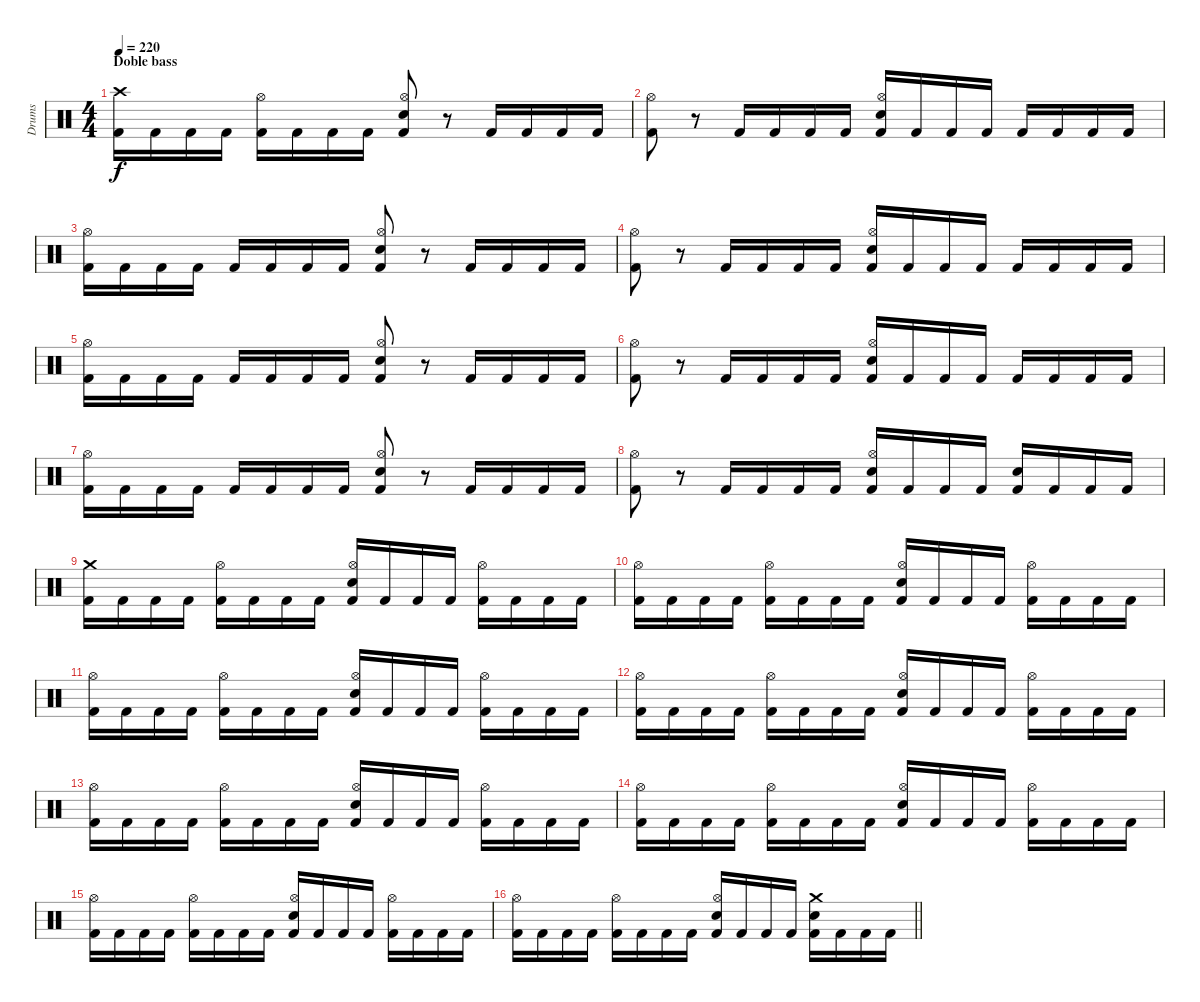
\track ("Drums" "Drums") {instrument percussion}
\staff {score}
\articulation defaults
\ts (4 4)
\section ("" "Doble bass")
\tempo 220
\clef neutral
\ks c
("Crash high (hit)" "Kick (hit) 2").16{dy f} "Kick (hit) 2".16 "Kick (hit) 2".16 "Kick (hit) 2".16 ("Hi-Hat (open)" "Kick (hit) 2").16 "Kick (hit) 2".16 "Kick (hit) 2".16 "Kick (hit) 2".16 ("Hi-Hat (open)" "Electric Snare (hit)" "Kick (hit) 2").8 r.8 "Kick (hit) 2".16 "Kick (hit) 2".16 "Kick (hit) 2".16 "Kick (hit) 2".16 |
("Hi-Hat (open)" "Kick (hit) 2").8 r.8 "Kick (hit) 2".16 "Kick (hit) 2".16 "Kick (hit) 2".16 "Kick (hit) 2".16 ("Hi-Hat (open)" "Electric Snare (hit)" "Kick (hit) 2").16 "Kick (hit) 2".16 "Kick (hit) 2".16 "Kick (hit) 2".16 "Kick (hit) 2".16 "Kick (hit) 2".16 "Kick (hit) 2".16 "Kick (hit) 2".16 |
("Hi-Hat (open)" "Kick (hit) 2").16 "Kick (hit) 2".16 "Kick (hit) 2".16 "Kick (hit) 2".16 "Kick (hit) 2".16 "Kick (hit) 2".16 "Kick (hit) 2".16 "Kick (hit) 2".16 ("Hi-Hat (open)" "Electric Snare (hit)" "Kick (hit) 2").8 r.8 "Kick (hit) 2".16 "Kick (hit) 2".16 "Kick (hit) 2".16 "Kick (hit) 2".16 |
("Hi-Hat (open)" "Kick (hit) 2").8 r.8 "Kick (hit) 2".16 "Kick (hit) 2".16 "Kick (hit) 2".16 "Kick (hit) 2".16 ("Hi-Hat (open)" "Electric Snare (hit)" "Kick (hit) 2").16 "Kick (hit) 2".16 "Kick (hit) 2".16 "Kick (hit) 2".16 "Kick (hit) 2".16 "Kick (hit) 2".16 "Kick (hit) 2".16 "Kick (hit) 2".16 |
("Hi-Hat (open)" "Kick (hit) 2").16 "Kick (hit) 2".16 "Kick (hit) 2".16 "Kick (hit) 2".16 "Kick (hit) 2".16 "Kick (hit) 2".16 "Kick (hit) 2".16 "Kick (hit) 2".16 ("Hi-Hat (open)" "Electric Snare (hit)" "Kick (hit) 2").8 r.8 "Kick (hit) 2".16 "Kick (hit) 2".16 "Kick (hit) 2".16 "Kick (hit) 2".16 |
("Hi-Hat (open)" "Kick (hit) 2").8 r.8 "Kick (hit) 2".16 "Kick (hit) 2".16 "Kick (hit) 2".16 "Kick (hit) 2".16 ("Hi-Hat (open)" "Electric Snare (hit)" "Kick (hit) 2").16 "Kick (hit) 2".16 "Kick (hit) 2".16 "Kick (hit) 2".16 "Kick (hit) 2".16 "Kick (hit) 2".16 "Kick (hit) 2".16 "Kick (hit) 2".16 |
("Hi-Hat (open)" "Kick (hit) 2").16 "Kick (hit) 2".16 "Kick (hit) 2".16 "Kick (hit) 2".16 "Kick (hit) 2".16 "Kick (hit) 2".16 "Kick (hit) 2".16 "Kick (hit) 2".16 ("Hi-Hat (open)" "Electric Snare (hit)" "Kick (hit) 2").8 r.8 "Kick (hit) 2".16 "Kick (hit) 2".16 "Kick (hit) 2".16 "Kick (hit) 2".16 |
("Hi-Hat (open)" "Kick (hit) 2").8 r.8 "Kick (hit) 2".16 "Kick (hit) 2".16 "Kick (hit) 2".16 "Kick (hit) 2".16 ("Hi-Hat (open)" "Electric Snare (hit)" "Kick (hit) 2").16 "Kick (hit) 2".16 "Kick (hit) 2".16 "Kick (hit) 2".16 ("Electric Snare (hit)" "Kick (hit) 2").16 "Kick (hit) 2".16 "Kick (hit) 2".16 "Kick (hit) 2".16 |
("Crash medium (hit)" "Kick (hit) 2").16 "Kick (hit) 2".16 "Kick (hit) 2".16 "Kick (hit) 2".16 ("Hi-Hat (open)" "Kick (hit) 2").16 "Kick (hit) 2".16 "Kick (hit) 2".16 "Kick (hit) 2".16 ("Hi-Hat (open)" "Electric Snare (hit)" "Kick (hit) 2").16 "Kick (hit) 2".16 "Kick (hit) 2".16 "Kick (hit) 2".16 ("Hi-Hat (open)" "Kick (hit) 2").16 "Kick (hit) 2".16 "Kick (hit) 2".16 "Kick (hit) 2".16 |
("Hi-Hat (open)" "Kick (hit) 2").16 "Kick (hit) 2".16 "Kick (hit) 2".16 "Kick (hit) 2".16 ("Hi-Hat (open)" "Kick (hit) 2").16 "Kick (hit) 2".16 "Kick (hit) 2".16 "Kick (hit) 2".16 ("Hi-Hat (open)" "Electric Snare (hit)" "Kick (hit) 2").16 "Kick (hit) 2".16 "Kick (hit) 2".16 "Kick (hit) 2".16 ("Hi-Hat (open)" "Kick (hit) 2").16 "Kick (hit) 2".16 "Kick (hit) 2".16 "Kick (hit) 2".16 |
("Hi-Hat (open)" "Kick (hit) 2").16 "Kick (hit) 2".16 "Kick (hit) 2".16 "Kick (hit) 2".16 ("Hi-Hat (open)" "Kick (hit) 2").16 "Kick (hit) 2".16 "Kick (hit) 2".16 "Kick (hit) 2".16 ("Hi-Hat (open)" "Electric Snare (hit)" "Kick (hit) 2").16 "Kick (hit) 2".16 "Kick (hit) 2".16 "Kick (hit) 2".16 ("Hi-Hat (open)" "Kick (hit) 2").16 "Kick (hit) 2".16 "Kick (hit) 2".16 "Kick (hit) 2".16 |
("Hi-Hat (open)" "Kick (hit) 2").16 "Kick (hit) 2".16 "Kick (hit) 2".16 "Kick (hit) 2".16 ("Hi-Hat (open)" "Kick (hit) 2").16 "Kick (hit) 2".16 "Kick (hit) 2".16 "Kick (hit) 2".16 ("Hi-Hat (open)" "Electric Snare (hit)" "Kick (hit) 2").16 "Kick (hit) 2".16 "Kick (hit) 2".16 "Kick (hit) 2".16 ("Hi-Hat (open)" "Kick (hit) 2").16 "Kick (hit) 2".16 "Kick (hit) 2".16 "Kick (hit) 2".16 |
("Hi-Hat (open)" "Kick (hit) 2").16 "Kick (hit) 2".16 "Kick (hit) 2".16 "Kick (hit) 2".16 ("Hi-Hat (open)" "Kick (hit) 2").16 "Kick (hit) 2".16 "Kick (hit) 2".16 "Kick (hit) 2".16 ("Hi-Hat (open)" "Electric Snare (hit)" "Kick (hit) 2").16 "Kick (hit) 2".16 "Kick (hit) 2".16 "Kick (hit) 2".16 ("Hi-Hat (open)" "Kick (hit) 2").16 "Kick (hit) 2".16 "Kick (hit) 2".16 "Kick (hit) 2".16 |
("Hi-Hat (open)" "Kick (hit) 2").16 "Kick (hit) 2".16 "Kick (hit) 2".16 "Kick (hit) 2".16 ("Hi-Hat (open)" "Kick (hit) 2").16 "Kick (hit) 2".16 "Kick (hit) 2".16 "Kick (hit) 2".16 ("Hi-Hat (open)" "Electric Snare (hit)" "Kick (hit) 2").16 "Kick (hit) 2".16 "Kick (hit) 2".16 "Kick (hit) 2".16 ("Hi-Hat (open)" "Kick (hit) 2").16 "Kick (hit) 2".16 "Kick (hit) 2".16 "Kick (hit) 2".16 |
("Hi-Hat (open)" "Kick (hit) 2").16 "Kick (hit) 2".16 "Kick (hit) 2".16 "Kick (hit) 2".16 ("Hi-Hat (open)" "Kick (hit) 2").16 "Kick (hit) 2".16 "Kick (hit) 2".16 "Kick (hit) 2".16 ("Hi-Hat (open)" "Electric Snare (hit)" "Kick (hit) 2").16 "Kick (hit) 2".16 "Kick (hit) 2".16 "Kick (hit) 2".16 ("Hi-Hat (open)" "Kick (hit) 2").16 "Kick (hit) 2".16 "Kick (hit) 2".16 "Kick (hit) 2".16 |
\barLineRight lightlight
("Hi-Hat (open)" "Kick (hit) 2").16 "Kick (hit) 2".16 "Kick (hit) 2".16 "Kick (hit) 2".16 ("Hi-Hat (open)" "Kick (hit) 2").16 "Kick (hit) 2".16 "Kick (hit) 2".16 "Kick (hit) 2".16 ("Hi-Hat (open)" "Electric Snare (hit)" "Kick (hit) 2").16 "Kick (hit) 2".16 "Kick (hit) 2".16 "Kick (hit) 2".16 ("Crash medium (hit)" "Electric Snare (hit)" "Kick (hit) 2").16 "Kick (hit) 2".16 "Kick (hit) 2".16 "Kick (hit) 2".16
